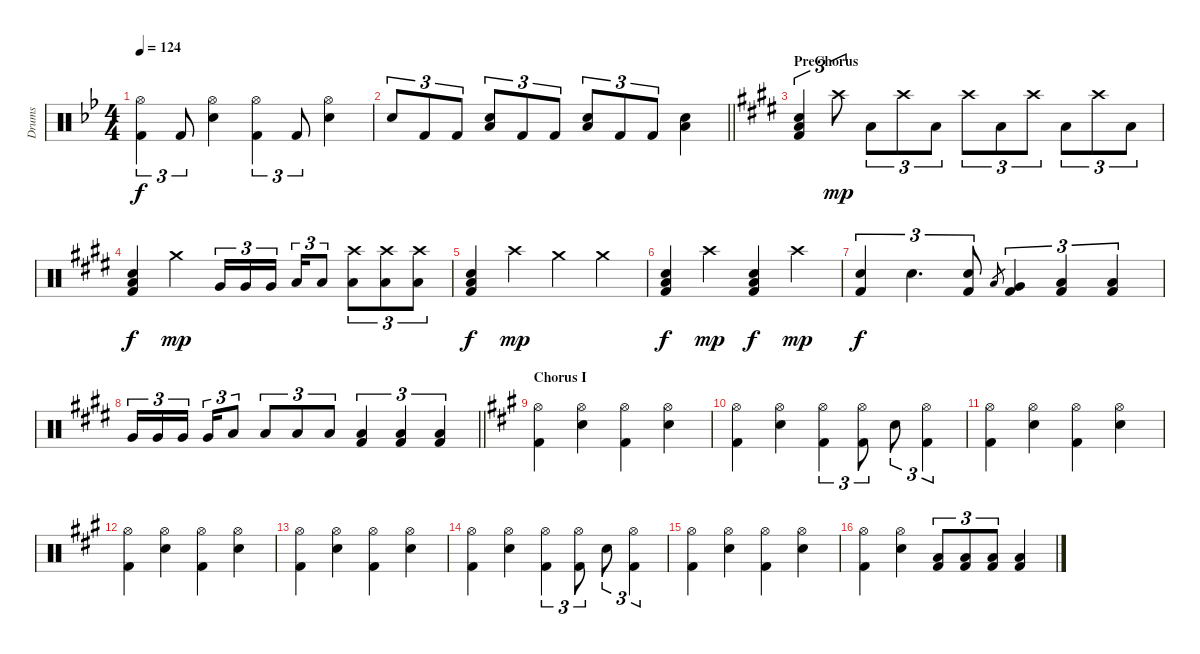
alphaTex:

\track ("Drums" "Drums") {instrument percussion}
\staff {score}
\articulation defaults
\ts (4 4)
\tempo 124
\clef neutral
\ks bb
("Hi-Hat (open)" "Kick (hit) 2").4{tu (3 2) dy f} "Kick (hit) 2".8{tu (3 2)} ("Hi-Hat (open)" "Electric Snare (hit)").4 ("Hi-Hat (open)" "Kick (hit) 2").4{tu (3 2)} "Kick (hit) 2".8{tu (3 2)} ("Hi-Hat (open)" "Electric Snare (hit)").4 |
\barLineRight lightlight "Electric Snare (hit)".8{tu (3 2)} "Kick (hit) 2".8{tu (3 2)} "Kick (hit) 2".8{tu (3 2)}
("Electric Snare (hit)" "Low Floor Tom (hit)").8{tu (3 2)} "Kick (hit) 2".8{tu (3 2)} "Kick (hit) 2".8{tu (3 2)} ("Electric Snare (hit)" "Low Floor Tom (hit)").8{tu (3 2)} "Kick (hit) 2".8{tu (3 2)} "Kick (hit) 2".8{tu (3 2)} ("Electric Snare (hit)" "Low Floor Tom (hit)").4 |
\section ("" "PreChorus")
\ks e
("Snare (hit) 2" "Low Floor Tom (hit)" "Kick (hit) 2").4{tu (3 2)} "Crash high (hit)".8{tu (3 2) dy mp} "Low Floor Tom (hit)".8{tu (3 2)} "Crash high (hit)".8{tu (3 2)} "Low Floor Tom (hit)".8{tu (3 2)} "Crash high (hit)".8{tu (3 2)} "Low Floor Tom (hit)".8{tu (3 2)} "Crash high (hit)".8{tu (3 2)} "Low Floor Tom (hit)".8{tu (3 2)} "Crash high (hit)".8{tu (3 2)} "Low Floor Tom (hit)".8{tu (3 2)} |
("Snare (hit) 2" "Low Floor Tom (hit)" "Kick (hit) 2").4{dy f} "Crash medium (hit)".4{dy mp} "Very Low Tom (hit)".16{tu (3 2)} "Very Low Tom (hit)".16{tu (3 2)} "Very Low Tom (hit)".16{tu (3 2) beam splitsecondary} "Low Floor Tom (hit)".16{tu (3 2)} "Low Floor Tom (hit)".8{tu (3 2)} ("Crash high (hit)" "Low Floor Tom (hit)").8{tu (3 2)} ("Crash high (hit)" "Low Floor Tom (hit)").8{tu (3 2)} ("Crash high (hit)" "Low Floor Tom (hit)").8{tu (3 2)} |
("Snare (hit) 2" "Low Floor Tom (hit)" "Kick (hit) 2").4{dy f} "Crash high (hit)".4{dy mp} "Crash medium (hit)".4 "Crash medium (hit)".4 |
("Snare (hit) 2" "Low Floor Tom (hit)" "Kick (hit) 2").4{dy f} "Crash high (hit)".4{dy mp} ("Snare (hit) 2" "Low Floor Tom (hit)" "Kick (hit) 2").4{dy f} "Crash high (hit)".4{dy mp} |
("Snare (hit) 2" "Kick (hit) 2").4{tu (3 2) dy f} "Electric Snare (hit)".4{d tu (3 2)} ("Snare (hit) 2" "Kick (hit) 2").8{tu (3 2)} "Low Floor Tom (hit)".8{gr} ("Very Low Tom (hit)" "Kick (hit) 2").4{tu (3 2)} ("Low Floor Tom (hit)" "Kick (hit) 2").4{tu (3 2)} ("Low Floor Tom (hit)" "Kick (hit) 2").4{tu (3 2)} |
\barLineRight lightlight "Very Low Tom (hit)".16{tu (3 2)} "Very Low Tom (hit)".16{tu (3 2)} "Very Low Tom (hit)".16{tu (3 2) beam splitsecondary} "Very Low Tom (hit)".16{tu (3 2)} "Low Floor Tom (hit)".8{tu (3 2)} "Low Floor Tom (hit)".8{tu (3 2)} "Low Floor Tom (hit)".8{tu (3 2)} "Low Floor Tom (hit)".8{tu (3 2)}
("Low Floor Tom (hit)" "Kick (hit) 2").4{tu (3 2)} ("Low Floor Tom (hit)" "Kick (hit) 2").4{tu (3 2)} ("Low Floor Tom (hit)" "Kick (hit) 2").4{tu (3 2)} |
\section ("" "Chorus I")
\ks a
("Hi-Hat (open)" "Kick (hit) 2").4 ("Hi-Hat (open)" "Electric Snare (hit)").4 ("Hi-Hat (open)" "Kick (hit) 2").4 ("Hi-Hat (open)" "Electric Snare (hit)").4 |
("Hi-Hat (open)" "Kick (hit) 2").4 ("Hi-Hat (open)" "Electric Snare (hit)").4 ("Hi-Hat (open)" "Kick (hit) 2").4{tu (3 2)} ("Hi-Hat (open)" "Kick (hit) 2").8{tu (3 2)} "Electric Snare (hit)".8{tu (3 2)} ("Hi-Hat (open)" "Kick (hit) 2").4{tu (3 2)} |
("Hi-Hat (open)" "Kick (hit) 2").4 ("Hi-Hat (open)" "Electric Snare (hit)").4 ("Hi-Hat (open)" "Kick (hit) 2").4 ("Hi-Hat (open)" "Electric Snare (hit)").4 |
("Hi-Hat (open)" "Kick (hit) 2").4 ("Hi-Hat (open)" "Electric Snare (hit)").4 ("Hi-Hat (open)" "Kick (hit) 2").4 ("Hi-Hat (open)" "Electric Snare (hit)").4 |
("Hi-Hat (open)" "Kick (hit) 2").4 ("Hi-Hat (open)" "Electric Snare (hit)").4 ("Hi-Hat (open)" "Kick (hit) 2").4 ("Hi-Hat (open)" "Electric Snare (hit)").4 |
("Hi-Hat (open)" "Kick (hit) 2").4 ("Hi-Hat (open)" "Electric Snare (hit)").4 ("Hi-Hat (open)" "Kick (hit) 2").4{tu (3 2)} ("Hi-Hat (open)" "Kick (hit) 2").8{tu (3 2)} "Electric Snare (hit)".8{tu (3 2)} ("Hi-Hat (open)" "Kick (hit) 2").4{tu (3 2)} |
("Hi-Hat (open)" "Kick (hit) 2").4 ("Hi-Hat (open)" "Electric Snare (hit)").4 ("Hi-Hat (open)" "Kick (hit) 2").4 ("Hi-Hat (open)" "Electric Snare (hit)").4 |
("Hi-Hat (open)" "Kick (hit) 2").4 ("Hi-Hat (open)" "Electric Snare (hit)").4 ("Low Floor Tom (hit)" "Kick (hit) 2").8{tu (3 2)} ("Low Floor Tom (hit)" "Kick (hit) 2").8{tu (3 2)} ("Low Floor Tom (hit)" "Kick (hit) 2").8{tu (3 2)} ("Low Floor Tom (hit)" "Kick (hit) 2").4
